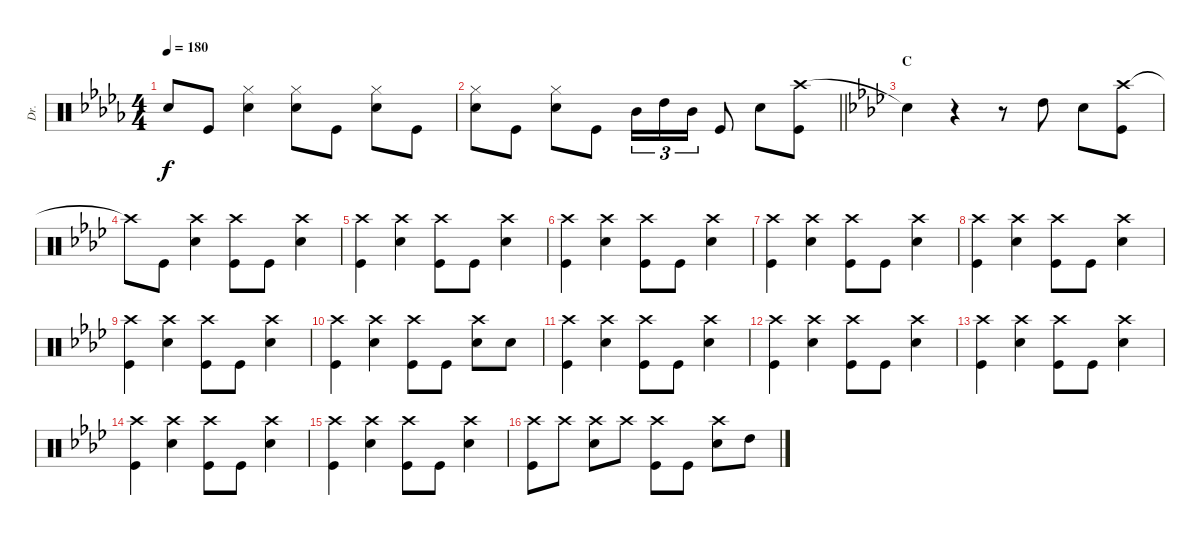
\track ("Dr." "Dr.") {instrument percussion}
\staff {score}
\articulation defaults
\ts (4 4)
\tempo 180
\clef neutral
\ks db "Snare (hit)"{t}.8{dy f} "Kick (hit)".8
("Hi-Hat (closed)" "Snare (hit) 2").4 ("Hi-Hat (closed)" "Snare (hit) 2").8 "Kick (hit)".8 ("Hi-Hat (closed)" "Snare (hit) 2").8 "Kick (hit)".8 |
\barLineRight lightlight
("Hi-Hat (closed)" "Snare (hit) 2").8 "Kick (hit)".8 ("Hi-Hat (closed)" "Snare (hit) 2").8 "Kick (hit)".8 "Mid Tom (hit)".16{tu (3 2)} "High Tom (hit)".16{tu (3 2)} "Mid Tom (hit)".16{tu (3 2)} "Kick (hit)".8 "Snare (hit) 2".8 ("Crash high (hit)" "Kick (hit)").8 |
\section ("" "C")
\ks ab "Snare (hit)"{t}.4
r.4 r.8 "High Tom (hit)".8 "Snare (hit) 2".8 ("Crash high (hit)" "Kick (hit)").8 |
"Crash high (hit)"{t}.8 "Kick (hit)".8 ("Crash high (hit)" "Snare (hit) 2").4 ("Crash high (hit)" "Kick (hit)").8 "Kick (hit)".8 ("Crash high (hit)" "Snare (hit) 2").4 |
("Crash high (hit)" "Kick (hit)").4 ("Crash high (hit)" "Snare (hit) 2").4 ("Crash high (hit)" "Kick (hit)").8 "Kick (hit)".8 ("Crash high (hit)" "Snare (hit) 2").4 |
("Crash high (hit)" "Kick (hit)").4 ("Crash high (hit)" "Snare (hit) 2").4 ("Crash high (hit)" "Kick (hit)").8 "Kick (hit)".8 ("Crash high (hit)" "Snare (hit) 2").4 |
("Crash high (hit)" "Kick (hit)").4 ("Crash high (hit)" "Snare (hit) 2").4 ("Crash high (hit)" "Kick (hit)").8 "Kick (hit)".8 ("Crash high (hit)" "Snare (hit) 2").4 |
("Crash high (hit)" "Kick (hit)").4 ("Crash high (hit)" "Snare (hit) 2").4 ("Crash high (hit)" "Kick (hit)").8 "Kick (hit)".8 ("Crash high (hit)" "Snare (hit) 2").4 |
("Crash high (hit)" "Kick (hit)").4 ("Crash high (hit)" "Snare (hit) 2").4 ("Crash high (hit)" "Kick (hit)").8 "Kick (hit)".8 ("Crash high (hit)" "Snare (hit) 2").4 |
("Crash high (hit)" "Kick (hit)").4 ("Crash high (hit)" "Snare (hit) 2").4 ("Crash high (hit)" "Kick (hit)").8 "Kick (hit)".8 ("Crash high (hit)" "Snare (hit) 2").8 "Snare (hit) 2".8 |
("Crash high (hit)" "Kick (hit)").4 ("Crash high (hit)" "Snare (hit) 2").4 ("Crash high (hit)" "Kick (hit)").8 "Kick (hit)".8 ("Crash high (hit)" "Snare (hit) 2").4 |
("Crash high (hit)" "Kick (hit)").4 ("Crash high (hit)" "Snare (hit) 2").4 ("Crash high (hit)" "Kick (hit)").8 "Kick (hit)".8 ("Crash high (hit)" "Snare (hit) 2").4 |
("Crash high (hit)" "Kick (hit)").4 ("Crash high (hit)" "Snare (hit) 2").4 ("Crash high (hit)" "Kick (hit)").8 "Kick (hit)".8 ("Crash high (hit)" "Snare (hit) 2").4 |
("Crash high (hit)" "Kick (hit)").4 ("Crash high (hit)" "Snare (hit) 2").4 ("Crash high (hit)" "Kick (hit)").8 "Kick (hit)".8 ("Crash high (hit)" "Snare (hit) 2").4 |
("Crash high (hit)" "Kick (hit)").4 ("Crash high (hit)" "Snare (hit) 2").4 ("Crash high (hit)" "Kick (hit)").8 "Kick (hit)".8 ("Crash high (hit)" "Snare (hit) 2").4 |
("Crash high (hit)" "Kick (hit)").8 "Crash high (hit)".8 ("Crash high (hit)" "Snare (hit) 2").8 "Crash high (hit)".8 ("Crash high (hit)" "Kick (hit)").8 "Kick (hit)".8 ("Crash high (hit)" "Snare (hit) 2").8 "High Tom (hit)".8
